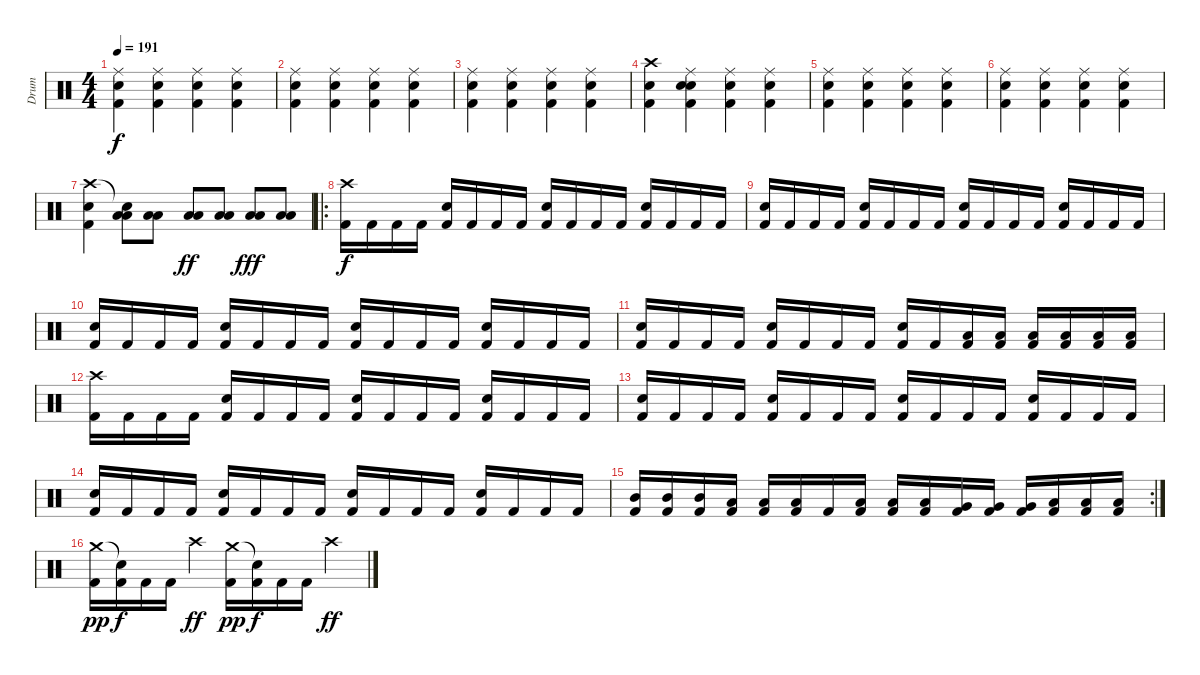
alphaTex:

\track ("Drum" "Drum") {instrument percussion}
\staff {score}
\articulation defaults
\ts (4 4)
\tempo 191
\clef neutral
\ks c
("Kick (hit) 2" "Snare (hit) 2" "Ride (middle)").4{dy f} ("Kick (hit) 2" "Snare (hit) 2" "Ride (middle)").4 ("Kick (hit) 2" "Snare (hit) 2" "Ride (middle)").4 ("Kick (hit) 2" "Snare (hit) 2" "Ride (middle)").4 |
("Kick (hit) 2" "Snare (hit) 2" "Ride (middle)").4 ("Kick (hit) 2" "Snare (hit) 2" "Ride (middle)").4 ("Kick (hit) 2" "Snare (hit) 2" "Ride (middle)").4 ("Kick (hit) 2" "Snare (hit) 2" "Ride (middle)").4 |
("Kick (hit) 2" "Snare (hit) 2" "Ride (middle)").4 ("Kick (hit) 2" "Snare (hit) 2" "Ride (middle)").4 ("Kick (hit) 2" "Snare (hit) 2" "Ride (middle)").4 ("Kick (hit) 2" "Snare (hit) 2" "Ride (middle)").4 |
("Kick (hit) 2" "Snare (hit) 2" "Crash high (hit)").4 ("Kick (hit) 2" "Snare (hit) 2" "Ride (middle)" "Snare (hit)").4 ("Kick (hit) 2" "Snare (hit) 2" "Ride (middle)").4 ("Kick (hit) 2" "Snare (hit) 2" "Ride (middle)").4 |
("Kick (hit) 2" "Snare (hit) 2" "Ride (middle)").4 ("Kick (hit) 2" "Snare (hit) 2" "Ride (middle)").4 ("Kick (hit) 2" "Snare (hit) 2" "Ride (middle)").4 ("Kick (hit) 2" "Snare (hit) 2" "Ride (middle)").4 |
("Kick (hit) 2" "Snare (hit) 2" "Ride (middle)").4 ("Kick (hit) 2" "Snare (hit) 2" "Ride (middle)").4 ("Kick (hit) 2" "Snare (hit) 2" "Ride (middle)").4 ("Kick (hit) 2" "Snare (hit) 2" "Ride (middle)").4 |
("Kick (hit) 2" "Snare (hit) 2" "Crash high (hit)").4 ("Low Floor Tom (hit)" "Low Floor Tom (hit)" "Snare (hit)"{t}).8 ("Low Floor Tom (hit)" "Low Floor Tom (hit)").8 ("Low Floor Tom (hit)" "Low Floor Tom (hit)").8{dy ff} ("Low Floor Tom (hit)" "Low Floor Tom (hit)").8 ("Low Floor Tom (hit)" "Low Floor Tom (hit)").8{dy fff} ("Low Floor Tom (hit)" "Low Floor Tom (hit)").8 |
\ro
("Kick (hit) 2" "Crash high (hit)").16{dy f} "Kick (hit) 2".16 "Kick (hit) 2".16 "Kick (hit) 2".16 ("Kick (hit) 2" "Snare (hit) 2").16 "Kick (hit) 2".16 "Kick (hit) 2".16 "Kick (hit) 2".16 ("Kick (hit) 2" "Snare (hit) 2").16 "Kick (hit) 2".16 "Kick (hit) 2".16 "Kick (hit) 2".16 ("Kick (hit) 2" "Snare (hit) 2").16 "Kick (hit) 2".16 "Kick (hit) 2".16 "Kick (hit) 2".16 |
("Kick (hit) 2" "Snare (hit) 2").16 "Kick (hit) 2".16 "Kick (hit) 2".16 "Kick (hit) 2".16 ("Kick (hit) 2" "Snare (hit) 2").16 "Kick (hit) 2".16 "Kick (hit) 2".16 "Kick (hit) 2".16 ("Kick (hit) 2" "Snare (hit) 2").16 "Kick (hit) 2".16 "Kick (hit) 2".16 "Kick (hit) 2".16 ("Kick (hit) 2" "Snare (hit) 2").16 "Kick (hit) 2".16 "Kick (hit) 2".16 "Kick (hit) 2".16 |
("Kick (hit) 2" "Snare (hit) 2").16 "Kick (hit) 2".16 "Kick (hit) 2".16 "Kick (hit) 2".16 ("Kick (hit) 2" "Snare (hit) 2").16 "Kick (hit) 2".16 "Kick (hit) 2".16 "Kick (hit) 2".16 ("Kick (hit) 2" "Snare (hit) 2").16 "Kick (hit) 2".16 "Kick (hit) 2".16 "Kick (hit) 2".16 ("Kick (hit) 2" "Snare (hit) 2").16 "Kick (hit) 2".16 "Kick (hit) 2".16 "Kick (hit) 2".16 |
("Kick (hit) 2" "Snare (hit) 2").16 "Kick (hit) 2".16 "Kick (hit) 2".16 "Kick (hit) 2".16 ("Kick (hit) 2" "Snare (hit) 2").16 "Kick (hit) 2".16 "Kick (hit) 2".16 "Kick (hit) 2".16 ("Kick (hit) 2" "Snare (hit) 2").16 "Kick (hit) 2".16 ("Kick (hit) 2" "Low Floor Tom (hit)").16 ("Kick (hit) 2" "Low Floor Tom (hit)").16 ("Kick (hit) 2" "Low Floor Tom (hit)").16 ("Kick (hit) 2" "Low Floor Tom (hit)").16 ("Kick (hit) 2" "Low Floor Tom (hit)").16 ("Kick (hit) 2" "Low Floor Tom (hit)").16 |
("Kick (hit) 2" "Crash high (hit)").16 "Kick (hit) 2".16 "Kick (hit) 2".16 "Kick (hit) 2".16 ("Kick (hit) 2" "Snare (hit) 2").16 "Kick (hit) 2".16 "Kick (hit) 2".16 "Kick (hit) 2".16 ("Kick (hit) 2" "Snare (hit) 2").16 "Kick (hit) 2".16 "Kick (hit) 2".16 "Kick (hit) 2".16 ("Kick (hit) 2" "Snare (hit) 2").16 "Kick (hit) 2".16 "Kick (hit) 2".16 "Kick (hit) 2".16 |
("Kick (hit) 2" "Snare (hit) 2").16 "Kick (hit) 2".16 "Kick (hit) 2".16 "Kick (hit) 2".16 ("Kick (hit) 2" "Snare (hit) 2").16 "Kick (hit) 2".16 "Kick (hit) 2".16 "Kick (hit) 2".16 ("Kick (hit) 2" "Snare (hit) 2").16 "Kick (hit) 2".16 "Kick (hit) 2".16 "Kick (hit) 2".16 ("Kick (hit) 2" "Snare (hit) 2").16 "Kick (hit) 2".16 "Kick (hit) 2".16 "Kick (hit) 2".16 |
("Kick (hit) 2" "Snare (hit) 2").16 "Kick (hit) 2".16 "Kick (hit) 2".16 "Kick (hit) 2".16 ("Kick (hit) 2" "Snare (hit) 2").16 "Kick (hit) 2".16 "Kick (hit) 2".16 "Kick (hit) 2".16 ("Kick (hit) 2" "Snare (hit) 2").16 "Kick (hit) 2".16 "Kick (hit) 2".16 "Kick (hit) 2".16 ("Kick (hit) 2" "Snare (hit) 2").16 "Kick (hit) 2".16 "Kick (hit) 2".16 "Kick (hit) 2".16 |
\rc 2
("Kick (hit) 2" "Mid Tom (hit)").16 ("Kick (hit) 2" "Mid Tom (hit)").16 ("Kick (hit) 2" "Mid Tom (hit)").16 ("Kick (hit) 2" "Low Tom (hit)").16 ("Kick (hit) 2" "Low Tom (hit)").16 ("Kick (hit) 2" "Low Tom (hit)").16 "Kick (hit) 2".16 ("Kick (hit) 2" "Low Tom (hit)").16 ("Kick (hit) 2" "Low Tom (hit)").16 ("Kick (hit) 2" "Low Tom (hit)").16 ("Kick (hit) 2" "Very Low Tom (hit)").16 ("Kick (hit) 2" "Very Low Tom (hit)").16 ("Kick (hit) 2" "Very Low Tom (hit)").16 ("Kick (hit) 2" "Low Floor Tom (hit)").16 ("Kick (hit) 2" "Low Floor Tom (hit)").16 ("Kick (hit) 2" "Low Floor Tom (hit)").16 |
("Kick (hit) 2" "Crash medium (hit)").16{dy pp} ("Kick (hit) 2" "Snare (hit)"{t}).16{dy f} "Kick (hit) 2".16 "Kick (hit) 2".16 "Crash high (hit)".4{dy ff} ("Kick (hit) 2" "Crash medium (hit)").16{dy pp} ("Kick (hit) 2" "Snare (hit)"{t}).16{dy f} "Kick (hit) 2".16 "Kick (hit) 2".16 "Crash high (hit)".4{dy ff}
